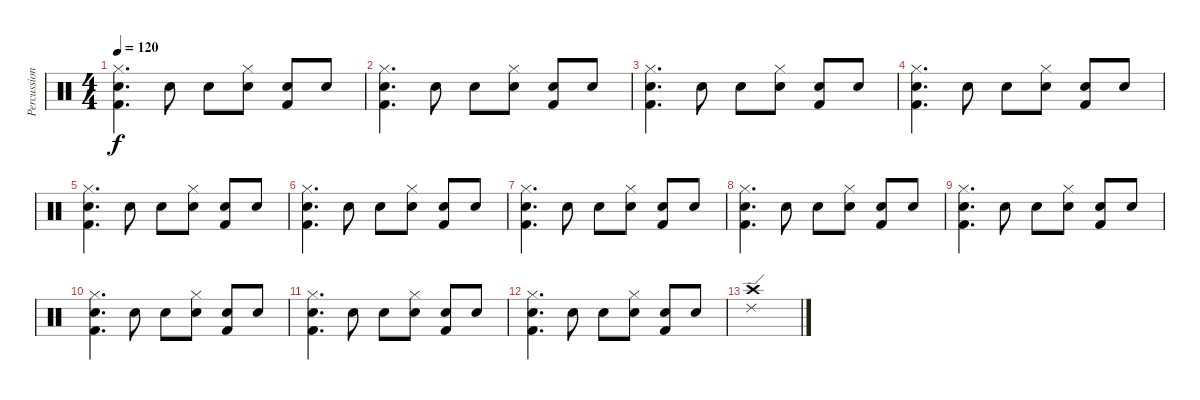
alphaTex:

\track ("Percussions" "Percussion") {instrument percussion}
\staff {score}
\articulation defaults
\ts (4 4)
\tempo 120
\clef neutral
\ks c
("Kick (hit) 2" "Electric Snare (hit)" "Hi-Hat (closed)").4{d dy f} "Electric Snare (hit)".8 "Electric Snare (hit)".8 ("Electric Snare (hit)" "Hi-Hat (closed)").8 ("Kick (hit) 2" "Electric Snare (hit)").8 "Electric Snare (hit)".8 |
("Kick (hit) 2" "Electric Snare (hit)" "Hi-Hat (closed)").4{d} "Electric Snare (hit)".8 "Electric Snare (hit)".8 ("Electric Snare (hit)" "Hi-Hat (closed)").8 ("Kick (hit) 2" "Electric Snare (hit)").8 "Electric Snare (hit)".8 |
("Kick (hit) 2" "Electric Snare (hit)" "Hi-Hat (closed)").4{d} "Electric Snare (hit)".8 "Electric Snare (hit)".8 ("Electric Snare (hit)" "Hi-Hat (closed)").8 ("Kick (hit) 2" "Electric Snare (hit)").8 "Electric Snare (hit)".8 |
("Kick (hit) 2" "Electric Snare (hit)" "Hi-Hat (closed)").4{d} "Electric Snare (hit)".8 "Electric Snare (hit)".8 ("Electric Snare (hit)" "Hi-Hat (closed)").8 ("Kick (hit) 2" "Electric Snare (hit)").8 "Electric Snare (hit)".8 |
("Kick (hit) 2" "Electric Snare (hit)" "Hi-Hat (closed)").4{d} "Electric Snare (hit)".8 "Electric Snare (hit)".8 ("Electric Snare (hit)" "Hi-Hat (closed)").8 ("Kick (hit) 2" "Electric Snare (hit)").8 "Electric Snare (hit)".8 |
("Kick (hit) 2" "Electric Snare (hit)" "Hi-Hat (closed)").4{d} "Electric Snare (hit)".8 "Electric Snare (hit)".8 ("Electric Snare (hit)" "Hi-Hat (closed)").8 ("Kick (hit) 2" "Electric Snare (hit)").8 "Electric Snare (hit)".8 |
("Kick (hit) 2" "Electric Snare (hit)" "Hi-Hat (closed)").4{d} "Electric Snare (hit)".8 "Electric Snare (hit)".8 ("Electric Snare (hit)" "Hi-Hat (closed)").8 ("Kick (hit) 2" "Electric Snare (hit)").8 "Electric Snare (hit)".8 |
("Kick (hit) 2" "Electric Snare (hit)" "Hi-Hat (closed)").4{d} "Electric Snare (hit)".8 "Electric Snare (hit)".8 ("Electric Snare (hit)" "Hi-Hat (closed)").8 ("Kick (hit) 2" "Electric Snare (hit)").8 "Electric Snare (hit)".8 |
("Kick (hit) 2" "Electric Snare (hit)" "Hi-Hat (closed)").4{d} "Electric Snare (hit)".8 "Electric Snare (hit)".8 ("Electric Snare (hit)" "Hi-Hat (closed)").8 ("Kick (hit) 2" "Electric Snare (hit)").8 "Electric Snare (hit)".8 |
("Kick (hit) 2" "Electric Snare (hit)" "Hi-Hat (closed)").4{d} "Electric Snare (hit)".8 "Electric Snare (hit)".8 ("Electric Snare (hit)" "Hi-Hat (closed)").8 ("Kick (hit) 2" "Electric Snare (hit)").8 "Electric Snare (hit)".8 |
("Kick (hit) 2" "Electric Snare (hit)" "Hi-Hat (closed)").4{d} "Electric Snare (hit)".8 "Electric Snare (hit)".8 ("Electric Snare (hit)" "Hi-Hat (closed)").8 ("Kick (hit) 2" "Electric Snare (hit)").8 "Electric Snare (hit)".8 |
("Kick (hit) 2" "Electric Snare (hit)" "Hi-Hat (closed)").4{d} "Electric Snare (hit)".8 "Electric Snare (hit)".8 ("Electric Snare (hit)" "Hi-Hat (closed)").8 ("Kick (hit) 2" "Electric Snare (hit)").8 "Electric Snare (hit)".8 |
("Ride (edge) 2" "Crash high (hit)").1
